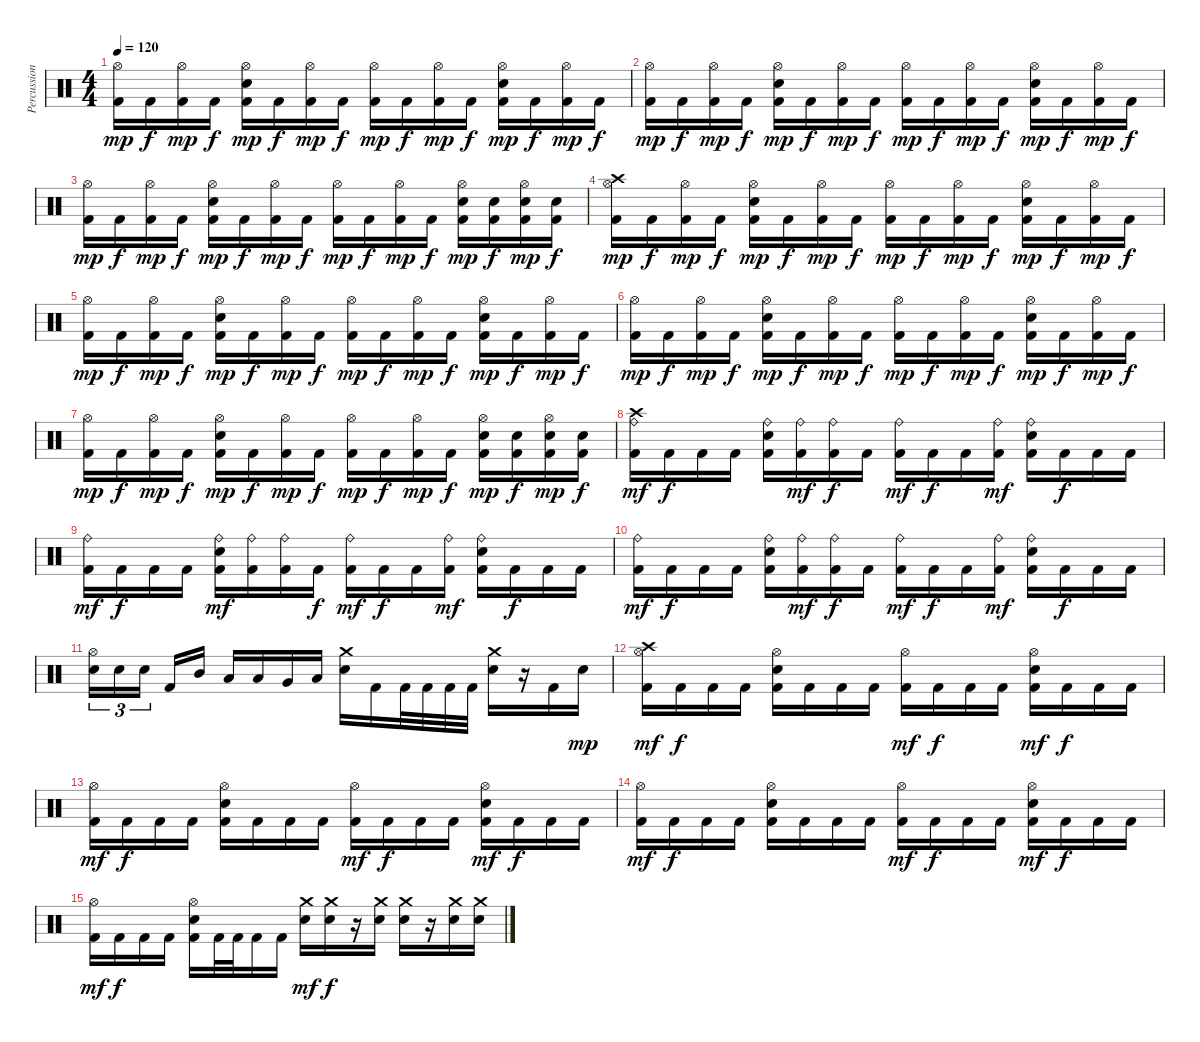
\track ("Percussion" "Percussion") {instrument percussion}
\staff {score}
\articulation defaults
\ts (4 4)
\tempo 120
\clef neutral
\ks c
("Hi-Hat (open)" "Kick (hit) 2").16{dy mp} "Kick (hit) 2".16{dy f} ("Hi-Hat (open)" "Kick (hit) 2").16{dy mp} "Kick (hit) 2".16{dy f} ("Hi-Hat (open)" "Electric Snare (hit)" "Kick (hit) 2").16{dy mp} "Kick (hit) 2".16{dy f} ("Hi-Hat (open)" "Kick (hit) 2").16{dy mp} "Kick (hit) 2".16{dy f} ("Hi-Hat (open)" "Kick (hit) 2").16{dy mp} "Kick (hit) 2".16{dy f} ("Hi-Hat (open)" "Kick (hit) 2").16{dy mp} "Kick (hit) 2".16{dy f} ("Hi-Hat (open)" "Electric Snare (hit)" "Kick (hit) 2").16{dy mp} "Kick (hit) 2".16{dy f} ("Hi-Hat (open)" "Kick (hit) 2").16{dy mp} "Kick (hit) 2".16{dy f} |
("Hi-Hat (open)" "Kick (hit) 2").16{dy mp} "Kick (hit) 2".16{dy f} ("Hi-Hat (open)" "Kick (hit) 2").16{dy mp} "Kick (hit) 2".16{dy f} ("Hi-Hat (open)" "Electric Snare (hit)" "Kick (hit) 2").16{dy mp} "Kick (hit) 2".16{dy f} ("Hi-Hat (open)" "Kick (hit) 2").16{dy mp} "Kick (hit) 2".16{dy f} ("Hi-Hat (open)" "Kick (hit) 2").16{dy mp} "Kick (hit) 2".16{dy f} ("Hi-Hat (open)" "Kick (hit) 2").16{dy mp} "Kick (hit) 2".16{dy f} ("Hi-Hat (open)" "Electric Snare (hit)" "Kick (hit) 2").16{dy mp} "Kick (hit) 2".16{dy f} ("Hi-Hat (open)" "Kick (hit) 2").16{dy mp} "Kick (hit) 2".16{dy f} |
("Hi-Hat (open)" "Kick (hit) 2").16{dy mp} "Kick (hit) 2".16{dy f} ("Hi-Hat (open)" "Kick (hit) 2").16{dy mp} "Kick (hit) 2".16{dy f} ("Hi-Hat (open)" "Electric Snare (hit)" "Kick (hit) 2").16{dy mp} "Kick (hit) 2".16{dy f} ("Hi-Hat (open)" "Kick (hit) 2").16{dy mp} "Kick (hit) 2".16{dy f} ("Hi-Hat (open)" "Kick (hit) 2").16{dy mp} "Kick (hit) 2".16{dy f} ("Hi-Hat (open)" "Kick (hit) 2").16{dy mp} "Kick (hit) 2".16{dy f} ("Hi-Hat (open)" "Electric Snare (hit)" "Kick (hit) 2").16{dy mp} ("Electric Snare (hit)" "Kick (hit) 2").16{dy f} ("Hi-Hat (open)" "Electric Snare (hit)" "Kick (hit) 2").16{dy mp} ("Electric Snare (hit)" "Kick (hit) 2").16{dy f} |
("Hi-Hat (open)" "Crash high (hit)" "Kick (hit) 2").16{dy mp} "Kick (hit) 2".16{dy f} ("Hi-Hat (open)" "Kick (hit) 2").16{dy mp} "Kick (hit) 2".16{dy f} ("Hi-Hat (open)" "Electric Snare (hit)" "Kick (hit) 2").16{dy mp} "Kick (hit) 2".16{dy f} ("Hi-Hat (open)" "Kick (hit) 2").16{dy mp} "Kick (hit) 2".16{dy f} ("Hi-Hat (open)" "Kick (hit) 2").16{dy mp} "Kick (hit) 2".16{dy f} ("Hi-Hat (open)" "Kick (hit) 2").16{dy mp} "Kick (hit) 2".16{dy f} ("Hi-Hat (open)" "Electric Snare (hit)" "Kick (hit) 2").16{dy mp} "Kick (hit) 2".16{dy f} ("Hi-Hat (open)" "Kick (hit) 2").16{dy mp} "Kick (hit) 2".16{dy f} |
("Hi-Hat (open)" "Kick (hit) 2").16{dy mp} "Kick (hit) 2".16{dy f} ("Hi-Hat (open)" "Kick (hit) 2").16{dy mp} "Kick (hit) 2".16{dy f} ("Hi-Hat (open)" "Electric Snare (hit)" "Kick (hit) 2").16{dy mp} "Kick (hit) 2".16{dy f} ("Hi-Hat (open)" "Kick (hit) 2").16{dy mp} "Kick (hit) 2".16{dy f} ("Hi-Hat (open)" "Kick (hit) 2").16{dy mp} "Kick (hit) 2".16{dy f} ("Hi-Hat (open)" "Kick (hit) 2").16{dy mp} "Kick (hit) 2".16{dy f} ("Hi-Hat (open)" "Electric Snare (hit)" "Kick (hit) 2").16{dy mp} "Kick (hit) 2".16{dy f} ("Hi-Hat (open)" "Kick (hit) 2").16{dy mp} "Kick (hit) 2".16{dy f} |
("Hi-Hat (open)" "Kick (hit) 2").16{dy mp} "Kick (hit) 2".16{dy f} ("Hi-Hat (open)" "Kick (hit) 2").16{dy mp} "Kick (hit) 2".16{dy f} ("Hi-Hat (open)" "Electric Snare (hit)" "Kick (hit) 2").16{dy mp} "Kick (hit) 2".16{dy f} ("Hi-Hat (open)" "Kick (hit) 2").16{dy mp} "Kick (hit) 2".16{dy f} ("Hi-Hat (open)" "Kick (hit) 2").16{dy mp} "Kick (hit) 2".16{dy f} ("Hi-Hat (open)" "Kick (hit) 2").16{dy mp} "Kick (hit) 2".16{dy f} ("Hi-Hat (open)" "Electric Snare (hit)" "Kick (hit) 2").16{dy mp} "Kick (hit) 2".16{dy f} ("Hi-Hat (open)" "Kick (hit) 2").16{dy mp} "Kick (hit) 2".16{dy f} |
("Hi-Hat (open)" "Kick (hit) 2").16{dy mp} "Kick (hit) 2".16{dy f} ("Hi-Hat (open)" "Kick (hit) 2").16{dy mp} "Kick (hit) 2".16{dy f} ("Hi-Hat (open)" "Electric Snare (hit)" "Kick (hit) 2").16{dy mp} "Kick (hit) 2".16{dy f} ("Hi-Hat (open)" "Kick (hit) 2").16{dy mp} "Kick (hit) 2".16{dy f} ("Hi-Hat (open)" "Kick (hit) 2").16{dy mp} "Kick (hit) 2".16{dy f} ("Hi-Hat (open)" "Kick (hit) 2").16{dy mp} "Kick (hit) 2".16{dy f} ("Hi-Hat (open)" "Electric Snare (hit)" "Kick (hit) 2").16{dy mp} ("Electric Snare (hit)" "Kick (hit) 2").16{dy f} ("Hi-Hat (open)" "Electric Snare (hit)" "Kick (hit) 2").16{dy mp} ("Electric Snare (hit)" "Kick (hit) 2").16{dy f} |
("Ride (bell)" "Crash high (hit)" "Kick (hit) 2").16{dy mf} "Kick (hit) 2".16{dy f} "Kick (hit) 2".16 "Kick (hit) 2".16 ("Ride (bell)" "Electric Snare (hit)" "Kick (hit) 2").16 ("Ride (bell)" "Kick (hit) 2").16{dy mf} ("Ride (bell)" "Kick (hit) 2").16{dy f} "Kick (hit) 2".16 ("Ride (bell)" "Kick (hit) 2").16{dy mf} "Kick (hit) 2".16{dy f} "Kick (hit) 2".16 ("Ride (bell)" "Kick (hit) 2").16{dy mf} ("Ride (bell)" "Electric Snare (hit)" "Kick (hit) 2").16 "Kick (hit) 2".16{dy f} "Kick (hit) 2".16 "Kick (hit) 2".16 |
("Ride (bell)" "Kick (hit) 2").16{dy mf} "Kick (hit) 2".16{dy f} "Kick (hit) 2".16 "Kick (hit) 2".16 ("Ride (bell)" "Electric Snare (hit)" "Kick (hit) 2").16{dy mf} ("Ride (bell)" "Kick (hit) 2").16 ("Ride (bell)" "Kick (hit) 2").16 "Kick (hit) 2".16{dy f} ("Ride (bell)" "Kick (hit) 2").16{dy mf} "Kick (hit) 2".16{dy f} "Kick (hit) 2".16 ("Ride (bell)" "Kick (hit) 2").16{dy mf} ("Ride (bell)" "Electric Snare (hit)" "Kick (hit) 2").16 "Kick (hit) 2".16{dy f} "Kick (hit) 2".16 "Kick (hit) 2".16 |
("Ride (bell)" "Kick (hit) 2").16{dy mf} "Kick (hit) 2".16{dy f} "Kick (hit) 2".16 "Kick (hit) 2".16 ("Ride (bell)" "Electric Snare (hit)" "Kick (hit) 2").16 ("Ride (bell)" "Kick (hit) 2").16{dy mf} ("Ride (bell)" "Kick (hit) 2").16{dy f} "Kick (hit) 2".16 ("Ride (bell)" "Kick (hit) 2").16{dy mf} "Kick (hit) 2".16{dy f} "Kick (hit) 2".16 ("Ride (bell)" "Kick (hit) 2").16{dy mf} ("Ride (bell)" "Electric Snare (hit)" "Kick (hit) 2").16 "Kick (hit) 2".16{dy f} "Kick (hit) 2".16 "Kick (hit) 2".16 |
("Hi-Hat (open)" "Electric Snare (hit)").16{tu (3 2)} "Electric Snare (hit)".16{tu (3 2)} "Electric Snare (hit)".16{tu (3 2)} "Kick (hit) 2".16 "Mid Tom (hit)".16 "Low Tom (hit)".16 "Low Tom (hit)".16 "Very Low Tom (hit)".16 "Low Floor Tom (hit)".16 ("Crash medium (hit)" "Electric Snare (hit)").16 "Kick (hit) 2".16 "Kick (hit) 2".32 "Kick (hit) 2".32 "Kick (hit) 2".32 "Kick (hit) 2".32 ("Crash medium (hit)" "Electric Snare (hit)").16 r.16 "Kick (hit) 2".16 "Electric Snare (hit)".16{dy mp} |
("Hi-Hat (open)" "Crash high (hit)" "Kick (hit) 2").16{dy mf} "Kick (hit) 2".16{dy f} "Kick (hit) 2".16 "Kick (hit) 2".16 ("Hi-Hat (open)" "Electric Snare (hit)" "Kick (hit) 2").16 "Kick (hit) 2".16 "Kick (hit) 2".16 "Kick (hit) 2".16 ("Hi-Hat (open)" "Kick (hit) 2").16{dy mf} "Kick (hit) 2".16{dy f} "Kick (hit) 2".16 "Kick (hit) 2".16 ("Hi-Hat (open)" "Electric Snare (hit)" "Kick (hit) 2").16{dy mf} "Kick (hit) 2".16{dy f} "Kick (hit) 2".16 "Kick (hit) 2".16 |
("Hi-Hat (open)" "Kick (hit) 2").16{dy mf} "Kick (hit) 2".16{dy f} "Kick (hit) 2".16 "Kick (hit) 2".16 ("Hi-Hat (open)" "Electric Snare (hit)" "Kick (hit) 2").16 "Kick (hit) 2".16 "Kick (hit) 2".16 "Kick (hit) 2".16 ("Hi-Hat (open)" "Kick (hit) 2").16{dy mf} "Kick (hit) 2".16{dy f} "Kick (hit) 2".16 "Kick (hit) 2".16 ("Hi-Hat (open)" "Electric Snare (hit)" "Kick (hit) 2").16{dy mf} "Kick (hit) 2".16{dy f} "Kick (hit) 2".16 "Kick (hit) 2".16 |
("Hi-Hat (open)" "Kick (hit) 2").16{dy mf} "Kick (hit) 2".16{dy f} "Kick (hit) 2".16 "Kick (hit) 2".16 ("Hi-Hat (open)" "Electric Snare (hit)" "Kick (hit) 2").16 "Kick (hit) 2".16 "Kick (hit) 2".16 "Kick (hit) 2".16 ("Hi-Hat (open)" "Kick (hit) 2").16{dy mf} "Kick (hit) 2".16{dy f} "Kick (hit) 2".16 "Kick (hit) 2".16 ("Hi-Hat (open)" "Electric Snare (hit)" "Kick (hit) 2").16{dy mf} "Kick (hit) 2".16{dy f} "Kick (hit) 2".16 "Kick (hit) 2".16 |
("Hi-Hat (open)" "Kick (hit) 2").16{dy mf} "Kick (hit) 2".16{dy f} "Kick (hit) 2".16 "Kick (hit) 2".16 ("Hi-Hat (open)" "Electric Snare (hit)" "Kick (hit) 2").16 "Kick (hit) 2".32 "Kick (hit) 2".32 "Kick (hit) 2".16 "Kick (hit) 2".16 ("Crash medium (hit)" "Electric Snare (hit)").16{dy mf} ("Crash medium (hit)" "Electric Snare (hit)").16{dy f} r.16 ("Crash medium (hit)" "Electric Snare (hit)").16 ("Crash medium (hit)" "Electric Snare (hit)").16 r.16 ("Crash medium (hit)" "Electric Snare (hit)").16 ("Crash medium (hit)" "Electric Snare (hit)").16
